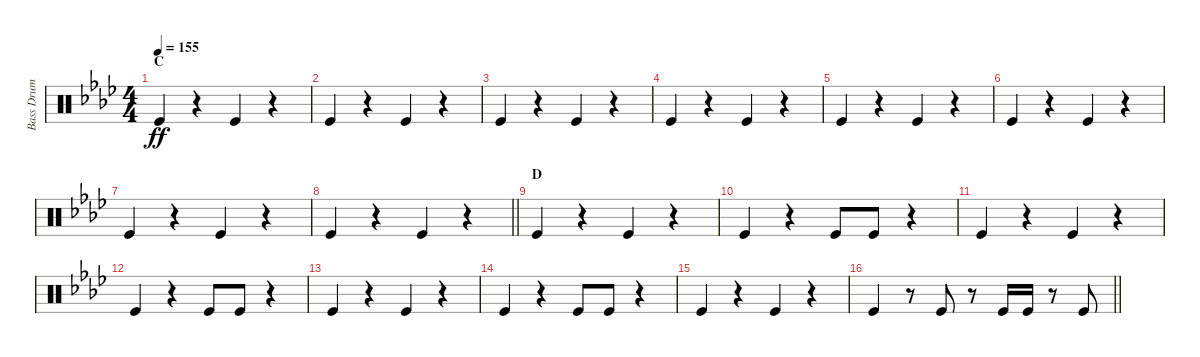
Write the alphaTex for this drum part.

\track ("Bass Drum" "Bass Drum") {instrument percussion}
\staff {score}
\articulation defaults
\ts (4 4)
\section ("" "C")
\tempo 155
\clef neutral
\ks ab "Kick (hit)".4{dy ff}
r.4 "Kick (hit)".4 r.4 |
"Kick (hit)".4 r.4 "Kick (hit)".4 r.4 |
"Kick (hit)".4 r.4 "Kick (hit)".4 r.4 |
"Kick (hit)".4 r.4 "Kick (hit)".4 r.4 |
"Kick (hit)".4 r.4 "Kick (hit)".4 r.4 |
"Kick (hit)".4 r.4 "Kick (hit)".4 r.4 |
"Kick (hit)".4 r.4 "Kick (hit)".4 r.4 |
\barLineRight lightlight "Kick (hit)".4
r.4 "Kick (hit)".4 r.4 |
\section ("" "D")
"Kick (hit)".4 r.4 "Kick (hit)".4 r.4 |
"Kick (hit)".4 r.4 "Kick (hit)".8 "Kick (hit)".8 r.4 |
"Kick (hit)".4 r.4 "Kick (hit)".4 r.4 |
"Kick (hit)".4 r.4 "Kick (hit)".8 "Kick (hit)".8 r.4 |
"Kick (hit)".4 r.4 "Kick (hit)".4 r.4 |
"Kick (hit)".4 r.4 "Kick (hit)".8 "Kick (hit)".8 r.4 |
"Kick (hit)".4 r.4 "Kick (hit)".4 r.4 |
\barLineRight lightlight "Kick (hit)".4
r.8 "Kick (hit)".8 r.8 "Kick (hit)".16 "Kick (hit)".16 r.8 "Kick (hit)".8
